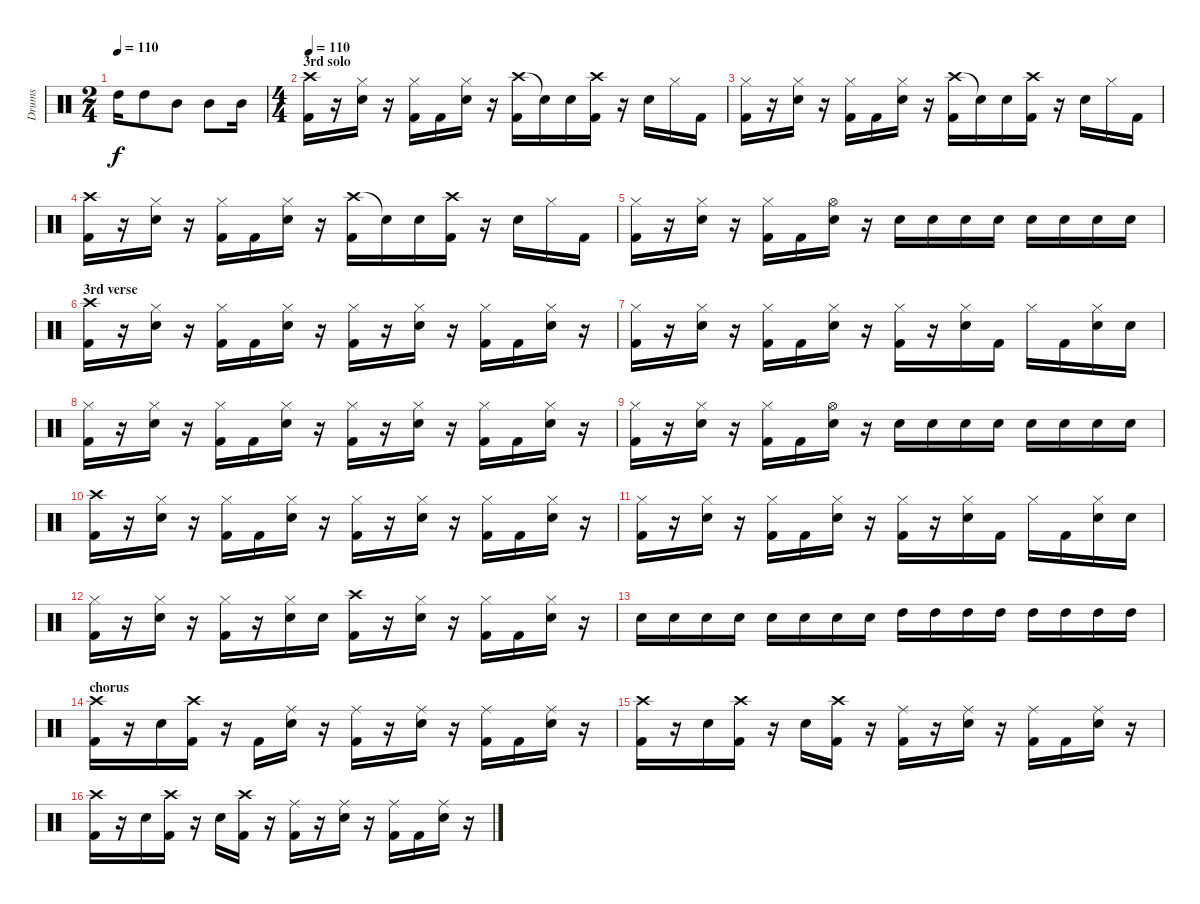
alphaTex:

\track ("Drums" "Drums") {instrument percussion}
\staff {score}
\articulation defaults
\ts (2 4)
\tempo 110
\clef neutral
\ks c "High Tom (hit)".16{dy f} "High Tom (hit)".8 "Mid Tom (hit)".8 "Mid Tom (hit)".8 "Mid Tom (hit)".16
|
\ts (4 4)
\section ("" "3rd solo")
\tempo 110
("Crash high (hit)" "Kick (hit) 2").16 r.16 ("Hi-Hat (closed)" "Electric Snare (hit)").16 r.16 ("Hi-Hat (closed)" "Kick (hit) 2").16 "Kick (hit) 2".16 ("Hi-Hat (closed)" "Electric Snare (hit)").16 r.16 ("Crash high (hit)" "Kick (hit) 2").16 "Snare (hit)"{t}.16 "Electric Snare (hit)".16 ("Crash high (hit)" "Kick (hit) 2").16 r.16 "Electric Snare (hit)".16 "Hi-Hat (closed)".16 "Kick (hit) 2".16 |
("Hi-Hat (closed)" "Kick (hit) 2").16 r.16 ("Hi-Hat (closed)" "Electric Snare (hit)").16 r.16 ("Hi-Hat (closed)" "Kick (hit) 2").16 "Kick (hit) 2".16 ("Hi-Hat (closed)" "Electric Snare (hit)").16 r.16 ("Crash high (hit)" "Kick (hit) 2").16 "Snare (hit)"{t}.16 "Electric Snare (hit)".16 ("Crash high (hit)" "Kick (hit) 2").16 r.16 "Electric Snare (hit)".16 "Hi-Hat (closed)".16 "Kick (hit) 2".16 |
("Crash high (hit)" "Kick (hit) 2").16 r.16 ("Hi-Hat (closed)" "Electric Snare (hit)").16 r.16 ("Hi-Hat (closed)" "Kick (hit) 2").16 "Kick (hit) 2".16 ("Hi-Hat (closed)" "Electric Snare (hit)").16 r.16 ("Crash high (hit)" "Kick (hit) 2").16 "Snare (hit)"{t}.16 "Electric Snare (hit)".16 ("Crash high (hit)" "Kick (hit) 2").16 r.16 "Electric Snare (hit)".16 "Hi-Hat (closed)".16 "Kick (hit) 2".16 |
("Hi-Hat (closed)" "Kick (hit) 2").16 r.16 ("Hi-Hat (closed)" "Electric Snare (hit)").16 r.16 ("Hi-Hat (closed)" "Kick (hit) 2").16 "Kick (hit) 2".16 ("Hi-Hat (open)" "Electric Snare (hit)").16 r.16 "Electric Snare (hit)".16 "Electric Snare (hit)".16 "Electric Snare (hit)".16 "Electric Snare (hit)".16 "Electric Snare (hit)".16 "Electric Snare (hit)".16 "Electric Snare (hit)".16 "Electric Snare (hit)".16 |
\section ("" "3rd verse")
("Crash high (hit)" "Kick (hit) 2").16 r.16 ("Hi-Hat (closed)" "Electric Snare (hit)").16 r.16 ("Hi-Hat (closed)" "Kick (hit) 2").16 "Kick (hit) 2".16 ("Hi-Hat (closed)" "Electric Snare (hit)").16 r.16 ("Hi-Hat (closed)" "Kick (hit) 2").16 r.16 ("Hi-Hat (closed)" "Electric Snare (hit)").16 r.16 ("Hi-Hat (closed)" "Kick (hit) 2").16 "Kick (hit) 2".16 ("Hi-Hat (closed)" "Electric Snare (hit)").16 r.16 |
("Hi-Hat (closed)" "Kick (hit) 2").16 r.16 ("Hi-Hat (closed)" "Electric Snare (hit)").16 r.16 ("Hi-Hat (closed)" "Kick (hit) 2").16 "Kick (hit) 2".16 ("Hi-Hat (closed)" "Electric Snare (hit)").16 r.16 ("Hi-Hat (closed)" "Kick (hit) 2").16 r.16 ("Hi-Hat (closed)" "Electric Snare (hit)").16 "Kick (hit) 2".16 "Hi-Hat (closed)".16 "Kick (hit) 2".16 ("Hi-Hat (closed)" "Electric Snare (hit)").16 "Electric Snare (hit)".16 |
("Hi-Hat (closed)" "Kick (hit) 2").16 r.16 ("Hi-Hat (closed)" "Electric Snare (hit)").16 r.16 ("Hi-Hat (closed)" "Kick (hit) 2").16 "Kick (hit) 2".16 ("Hi-Hat (closed)" "Electric Snare (hit)").16 r.16 ("Hi-Hat (closed)" "Kick (hit) 2").16 r.16 ("Hi-Hat (closed)" "Electric Snare (hit)").16 r.16 ("Hi-Hat (closed)" "Kick (hit) 2").16 "Kick (hit) 2".16 ("Hi-Hat (closed)" "Electric Snare (hit)").16 r.16 |
("Hi-Hat (closed)" "Kick (hit) 2").16 r.16 ("Hi-Hat (closed)" "Electric Snare (hit)").16 r.16 ("Hi-Hat (closed)" "Kick (hit) 2").16 "Kick (hit) 2".16 ("Hi-Hat (open)" "Electric Snare (hit)").16 r.16 "Electric Snare (hit)".16 "Electric Snare (hit)".16 "Electric Snare (hit)".16 "Electric Snare (hit)".16 "Electric Snare (hit)".16 "Electric Snare (hit)".16 "Electric Snare (hit)".16 "Electric Snare (hit)".16 |
("Crash high (hit)" "Kick (hit) 2").16 r.16 ("Hi-Hat (closed)" "Electric Snare (hit)").16 r.16 ("Hi-Hat (closed)" "Kick (hit) 2").16 "Kick (hit) 2".16 ("Hi-Hat (closed)" "Electric Snare (hit)").16 r.16 ("Hi-Hat (closed)" "Kick (hit) 2").16 r.16 ("Hi-Hat (closed)" "Electric Snare (hit)").16 r.16 ("Hi-Hat (closed)" "Kick (hit) 2").16 "Kick (hit) 2".16 ("Hi-Hat (closed)" "Electric Snare (hit)").16 r.16 |
("Hi-Hat (closed)" "Kick (hit) 2").16 r.16 ("Hi-Hat (closed)" "Electric Snare (hit)").16 r.16 ("Hi-Hat (closed)" "Kick (hit) 2").16 "Kick (hit) 2".16 ("Hi-Hat (closed)" "Electric Snare (hit)").16 r.16 ("Hi-Hat (closed)" "Kick (hit) 2").16 r.16 ("Hi-Hat (closed)" "Electric Snare (hit)").16 "Kick (hit) 2".16 "Hi-Hat (closed)".16 "Kick (hit) 2".16 ("Hi-Hat (closed)" "Electric Snare (hit)").16 "Electric Snare (hit)".16 |
("Hi-Hat (closed)" "Kick (hit) 2").16 r.16 ("Hi-Hat (closed)" "Electric Snare (hit)").16 r.16 ("Hi-Hat (closed)" "Kick (hit) 2").16 r.16 ("Hi-Hat (closed)" "Electric Snare (hit)").16 "Electric Snare (hit)".16 ("Crash high (hit)" "Kick (hit) 2").16 r.16 ("Hi-Hat (closed)" "Electric Snare (hit)").16 r.16 ("Hi-Hat (closed)" "Kick (hit) 2").16 "Kick (hit) 2".16 ("Hi-Hat (closed)" "Electric Snare (hit)").16 r.16 |
"Electric Snare (hit)".16 "Electric Snare (hit)".16 "Electric Snare (hit)".16 "Electric Snare (hit)".16 "Electric Snare (hit)".16 "Electric Snare (hit)".16 "Electric Snare (hit)".16 "Electric Snare (hit)".16 "High Tom (hit)".16 "High Tom (hit)".16 "High Tom (hit)".16 "High Tom (hit)".16 "High Tom (hit)".16 "High Tom (hit)".16 "High Tom (hit)".16 "High Tom (hit)".16 |
\section ("" "chorus")
("Crash high (hit)" "Kick (hit) 2").16 r.16 "Electric Snare (hit)".16 ("Crash high (hit)" "Kick (hit) 2").16 r.16 "Kick (hit) 2".16 ("Ride (middle)" "Electric Snare (hit)").16 r.16 ("Ride (middle)" "Kick (hit) 2").16 r.16 ("Ride (middle)" "Electric Snare (hit)").16 r.16 ("Ride (middle)" "Kick (hit) 2").16 "Kick (hit) 2".16 ("Ride (middle)" "Electric Snare (hit)").16 r.16 |
("Crash high (hit)" "Kick (hit) 2").16 r.16 "Electric Snare (hit)".16 ("Crash high (hit)" "Kick (hit) 2").16 r.16 "Electric Snare (hit)".16 ("Crash high (hit)" "Kick (hit) 2").16 r.16 ("Ride (middle)" "Kick (hit) 2").16 r.16 ("Ride (middle)" "Electric Snare (hit)").16 r.16 ("Ride (middle)" "Kick (hit) 2").16 "Kick (hit) 2".16 ("Ride (middle)" "Electric Snare (hit)").16 r.16 |
("Crash high (hit)" "Kick (hit) 2").16 r.16 "Electric Snare (hit)".16 ("Crash high (hit)" "Kick (hit) 2").16 r.16 "Electric Snare (hit)".16 ("Crash high (hit)" "Kick (hit) 2").16 r.16 ("Ride (middle)" "Kick (hit) 2").16 r.16 ("Ride (middle)" "Electric Snare (hit)").16 r.16 ("Ride (middle)" "Kick (hit) 2").16 "Kick (hit) 2".16 ("Ride (middle)" "Electric Snare (hit)").16 r.16
